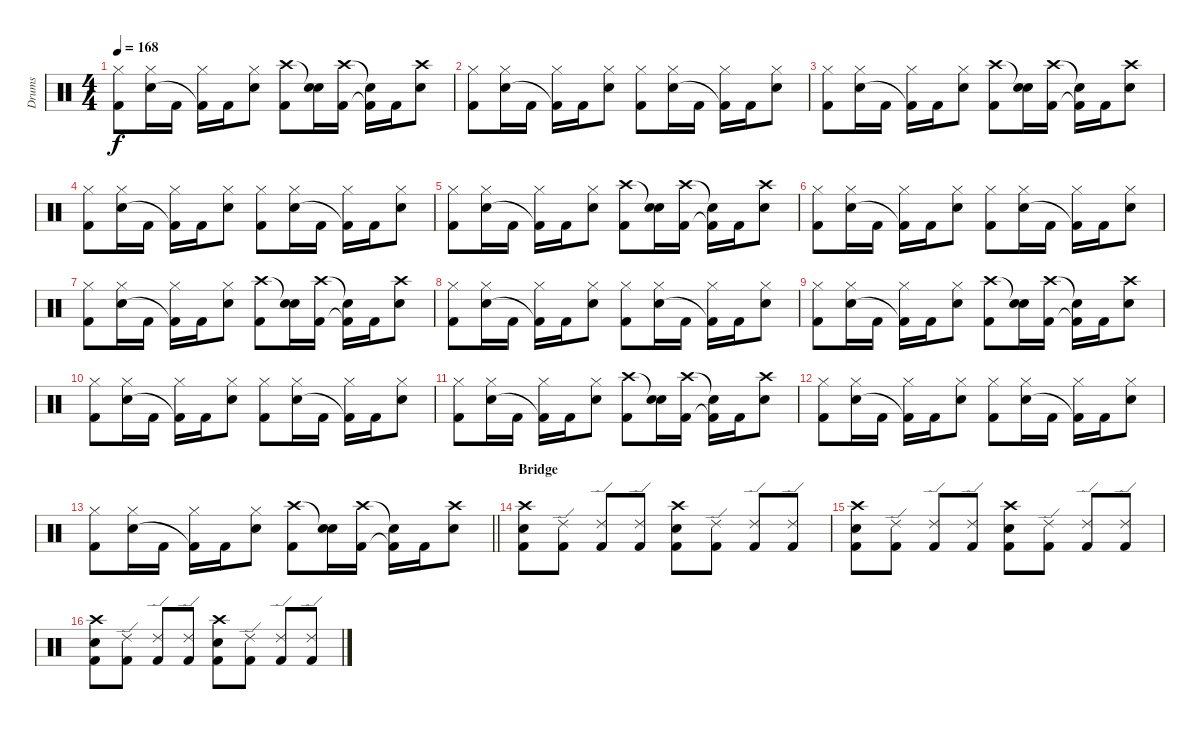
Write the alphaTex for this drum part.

\track ("Drums" "Drums") {instrument percussion}
\staff {score}
\articulation defaults
\ts (4 4)
\tempo 168
\clef neutral
\ks c
("Hi-Hat (closed)" "Kick (hit) 2").8{dy f} ("Hi-Hat (closed)" "Electric Snare (hit)").16 "Kick (hit) 2".16 ("Hi-Hat (closed)" "Kick (hit) 2"{t}).16 "Kick (hit) 2".16 ("Hi-Hat (closed)" "Electric Snare (hit)").8 ("Crash high (hit)" "Kick (hit) 2").8 ("Snare (hit)"{t} "Electric Snare (hit)").16 ("Crash high (hit)" "Kick (hit) 2").16 ("Snare (hit)"{t} "Kick (hit) 2"{t}).16 "Kick (hit) 2".16 ("Crash high (hit)" "Electric Snare (hit)").8 |
("Hi-Hat (closed)" "Kick (hit) 2").8 ("Hi-Hat (closed)" "Electric Snare (hit)").16 "Kick (hit) 2".16 ("Hi-Hat (closed)" "Kick (hit) 2"{t}).16 "Kick (hit) 2".16 ("Hi-Hat (closed)" "Electric Snare (hit)").8 ("Hi-Hat (closed)" "Kick (hit) 2").8 ("Hi-Hat (closed)" "Electric Snare (hit)").16 "Kick (hit) 2".16 ("Hi-Hat (closed)" "Kick (hit) 2"{t}).16 "Kick (hit) 2".16 ("Hi-Hat (closed)" "Electric Snare (hit)").8 |
("Hi-Hat (closed)" "Kick (hit) 2").8 ("Hi-Hat (closed)" "Electric Snare (hit)").16 "Kick (hit) 2".16 ("Hi-Hat (closed)" "Kick (hit) 2"{t}).16 "Kick (hit) 2".16 ("Hi-Hat (closed)" "Electric Snare (hit)").8 ("Crash high (hit)" "Kick (hit) 2").8 ("Snare (hit)"{t} "Electric Snare (hit)").16 ("Crash high (hit)" "Kick (hit) 2").16 ("Snare (hit)"{t} "Kick (hit) 2"{t}).16 "Kick (hit) 2".16 ("Crash high (hit)" "Electric Snare (hit)").8 |
("Hi-Hat (closed)" "Kick (hit) 2").8 ("Hi-Hat (closed)" "Electric Snare (hit)").16 "Kick (hit) 2".16 ("Hi-Hat (closed)" "Kick (hit) 2"{t}).16 "Kick (hit) 2".16 ("Hi-Hat (closed)" "Electric Snare (hit)").8 ("Hi-Hat (closed)" "Kick (hit) 2").8 ("Hi-Hat (closed)" "Electric Snare (hit)").16 "Kick (hit) 2".16 ("Hi-Hat (closed)" "Kick (hit) 2"{t}).16 "Kick (hit) 2".16 ("Hi-Hat (closed)" "Electric Snare (hit)").8 |
("Hi-Hat (closed)" "Kick (hit) 2").8 ("Hi-Hat (closed)" "Electric Snare (hit)").16 "Kick (hit) 2".16 ("Hi-Hat (closed)" "Kick (hit) 2"{t}).16 "Kick (hit) 2".16 ("Hi-Hat (closed)" "Electric Snare (hit)").8 ("Crash high (hit)" "Kick (hit) 2").8 ("Snare (hit)"{t} "Electric Snare (hit)").16 ("Crash high (hit)" "Kick (hit) 2").16 ("Snare (hit)"{t} "Kick (hit) 2"{t}).16 "Kick (hit) 2".16 ("Crash high (hit)" "Electric Snare (hit)").8 |
("Hi-Hat (closed)" "Kick (hit) 2").8 ("Hi-Hat (closed)" "Electric Snare (hit)").16 "Kick (hit) 2".16 ("Hi-Hat (closed)" "Kick (hit) 2"{t}).16 "Kick (hit) 2".16 ("Hi-Hat (closed)" "Electric Snare (hit)").8 ("Hi-Hat (closed)" "Kick (hit) 2").8 ("Hi-Hat (closed)" "Electric Snare (hit)").16 "Kick (hit) 2".16 ("Hi-Hat (closed)" "Kick (hit) 2"{t}).16 "Kick (hit) 2".16 ("Hi-Hat (closed)" "Electric Snare (hit)").8 |
("Hi-Hat (closed)" "Kick (hit) 2").8 ("Hi-Hat (closed)" "Electric Snare (hit)").16 "Kick (hit) 2".16 ("Hi-Hat (closed)" "Kick (hit) 2"{t}).16 "Kick (hit) 2".16 ("Hi-Hat (closed)" "Electric Snare (hit)").8 ("Crash high (hit)" "Kick (hit) 2").8 ("Snare (hit)"{t} "Electric Snare (hit)").16 ("Crash high (hit)" "Kick (hit) 2").16 ("Snare (hit)"{t} "Kick (hit) 2"{t}).16 "Kick (hit) 2".16 ("Crash high (hit)" "Electric Snare (hit)").8 |
("Hi-Hat (closed)" "Kick (hit) 2").8 ("Hi-Hat (closed)" "Electric Snare (hit)").16 "Kick (hit) 2".16 ("Hi-Hat (closed)" "Kick (hit) 2"{t}).16 "Kick (hit) 2".16 ("Hi-Hat (closed)" "Electric Snare (hit)").8 ("Hi-Hat (closed)" "Kick (hit) 2").8 ("Hi-Hat (closed)" "Electric Snare (hit)").16 "Kick (hit) 2".16 ("Hi-Hat (closed)" "Kick (hit) 2"{t}).16 "Kick (hit) 2".16 ("Hi-Hat (closed)" "Electric Snare (hit)").8 |
("Hi-Hat (closed)" "Kick (hit) 2").8 ("Hi-Hat (closed)" "Electric Snare (hit)").16 "Kick (hit) 2".16 ("Hi-Hat (closed)" "Kick (hit) 2"{t}).16 "Kick (hit) 2".16 ("Hi-Hat (closed)" "Electric Snare (hit)").8 ("Crash high (hit)" "Kick (hit) 2").8 ("Snare (hit)"{t} "Electric Snare (hit)").16 ("Crash high (hit)" "Kick (hit) 2").16 ("Snare (hit)"{t} "Kick (hit) 2"{t}).16 "Kick (hit) 2".16 ("Crash high (hit)" "Electric Snare (hit)").8 |
("Hi-Hat (closed)" "Kick (hit) 2").8 ("Hi-Hat (closed)" "Electric Snare (hit)").16 "Kick (hit) 2".16 ("Hi-Hat (closed)" "Kick (hit) 2"{t}).16 "Kick (hit) 2".16 ("Hi-Hat (closed)" "Electric Snare (hit)").8 ("Hi-Hat (closed)" "Kick (hit) 2").8 ("Hi-Hat (closed)" "Electric Snare (hit)").16 "Kick (hit) 2".16 ("Hi-Hat (closed)" "Kick (hit) 2"{t}).16 "Kick (hit) 2".16 ("Hi-Hat (closed)" "Electric Snare (hit)").8 |
("Hi-Hat (closed)" "Kick (hit) 2").8 ("Hi-Hat (closed)" "Electric Snare (hit)").16 "Kick (hit) 2".16 ("Hi-Hat (closed)" "Kick (hit) 2"{t}).16 "Kick (hit) 2".16 ("Hi-Hat (closed)" "Electric Snare (hit)").8 ("Crash high (hit)" "Kick (hit) 2").8 ("Snare (hit)"{t} "Electric Snare (hit)").16 ("Crash high (hit)" "Kick (hit) 2").16 ("Snare (hit)"{t} "Kick (hit) 2"{t}).16 "Kick (hit) 2".16 ("Crash high (hit)" "Electric Snare (hit)").8 |
("Hi-Hat (closed)" "Kick (hit) 2").8 ("Hi-Hat (closed)" "Electric Snare (hit)").16 "Kick (hit) 2".16 ("Hi-Hat (closed)" "Kick (hit) 2"{t}).16 "Kick (hit) 2".16 ("Hi-Hat (closed)" "Electric Snare (hit)").8 ("Hi-Hat (closed)" "Kick (hit) 2").8 ("Hi-Hat (closed)" "Electric Snare (hit)").16 "Kick (hit) 2".16 ("Hi-Hat (closed)" "Kick (hit) 2"{t}).16 "Kick (hit) 2".16 ("Hi-Hat (closed)" "Electric Snare (hit)").8 |
\barLineRight lightlight
("Hi-Hat (closed)" "Kick (hit) 2").8 ("Hi-Hat (closed)" "Electric Snare (hit)").16 "Kick (hit) 2".16 ("Hi-Hat (closed)" "Kick (hit) 2"{t}).16 "Kick (hit) 2".16 ("Hi-Hat (closed)" "Electric Snare (hit)").8 ("Crash high (hit)" "Kick (hit) 2").8 ("Snare (hit)"{t} "Electric Snare (hit)").16 ("Crash high (hit)" "Kick (hit) 2").16 ("Snare (hit)"{t} "Kick (hit) 2"{t}).16 "Kick (hit) 2".16 ("Crash high (hit)" "Electric Snare (hit)").8 |
\section ("" "Bridge")
("Crash high (hit)" "Electric Snare (hit)" "Kick (hit) 2").8 ("Ride (edge) 2" "Kick (hit) 2").8 ("Ride (edge) 2" "Kick (hit) 2").8 ("Ride (edge) 2" "Kick (hit) 2").8 ("Crash high (hit)" "Electric Snare (hit)" "Kick (hit) 2").8 ("Ride (edge) 2" "Kick (hit) 2").8 ("Ride (edge) 2" "Kick (hit) 2").8 ("Ride (edge) 2" "Kick (hit) 2").8 |
("Crash high (hit)" "Electric Snare (hit)" "Kick (hit) 2").8 ("Ride (edge) 2" "Kick (hit) 2").8 ("Ride (edge) 2" "Kick (hit) 2").8 ("Ride (edge) 2" "Kick (hit) 2").8 ("Crash high (hit)" "Electric Snare (hit)" "Kick (hit) 2").8 ("Ride (edge) 2" "Kick (hit) 2").8 ("Ride (edge) 2" "Kick (hit) 2").8 ("Ride (edge) 2" "Kick (hit) 2").8 |
("Crash high (hit)" "Electric Snare (hit)" "Kick (hit) 2").8 ("Ride (edge) 2" "Kick (hit) 2").8 ("Ride (edge) 2" "Kick (hit) 2").8 ("Ride (edge) 2" "Kick (hit) 2").8 ("Crash high (hit)" "Electric Snare (hit)" "Kick (hit) 2").8 ("Ride (edge) 2" "Kick (hit) 2").8 ("Ride (edge) 2" "Kick (hit) 2").8 ("Ride (edge) 2" "Kick (hit) 2").8
